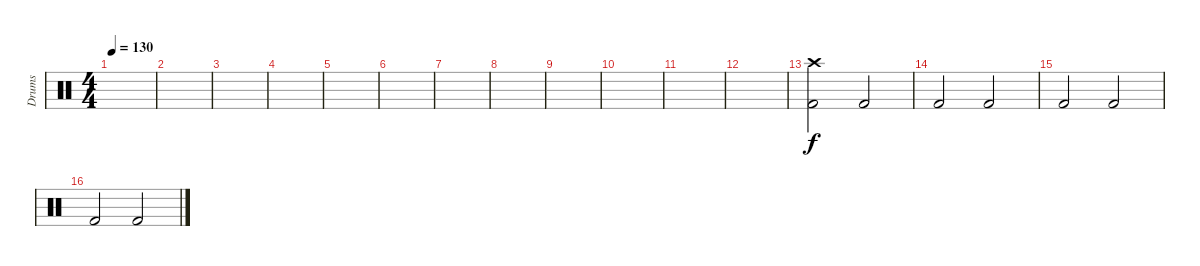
\track ("Drums" "Drums") {instrument percussion}
\staff {score}
\articulation defaults
\ts (4 4)
\tempo 130
\clef neutral
\ks c
|
|
|
|
|
|
|
|
|
|
|
|
("Crash high (hit)" "Kick (hit) 2").2 "Kick (hit) 2".2 |
"Kick (hit) 2".2 "Kick (hit) 2".2 |
"Kick (hit) 2".2 "Kick (hit) 2".2 |
"Kick (hit) 2".2 "Kick (hit) 2".2
